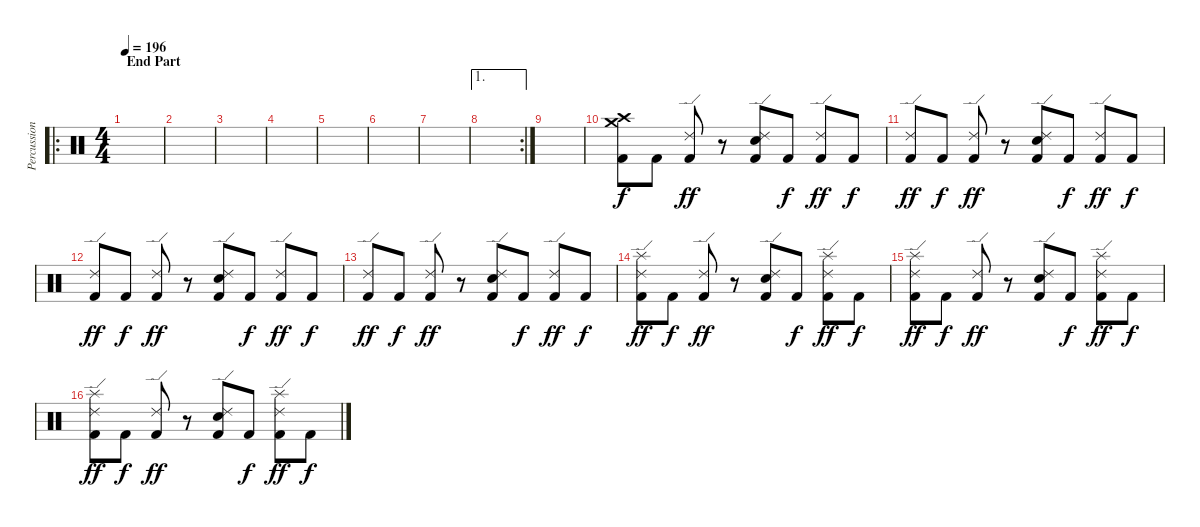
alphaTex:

\track ("Percussions" "Percussion") {instrument percussion}
\staff {score}
\articulation defaults
\ro
\ts (4 4)
\section ("" "End Part")
\tempo 196
\clef neutral
\ks c
|
|
|
|
|
|
|
\ae 1
\rc 2
|
|
("Crash high (hit)" "Crash medium (hit)" "Kick (hit) 2").8 "Kick (hit) 2".8{dy f} ("Ride (edge) 2" "Kick (hit) 2").8{dy ff} r.8 ("Ride (edge) 2" "Electric Snare (hit)" "Kick (hit) 2").8 "Kick (hit) 2".8{dy f} ("Ride (edge) 2" "Kick (hit) 2").8{dy ff} "Kick (hit) 2".8{dy f} |
("Ride (edge) 2" "Kick (hit) 2").8{dy ff} "Kick (hit) 2".8{dy f} ("Ride (edge) 2" "Kick (hit) 2").8{dy ff} r.8 ("Ride (edge) 2" "Electric Snare (hit)" "Kick (hit) 2").8 "Kick (hit) 2".8{dy f} ("Ride (edge) 2" "Kick (hit) 2").8{dy ff} "Kick (hit) 2".8{dy f} |
("Ride (edge) 2" "Kick (hit) 2").8{dy ff} "Kick (hit) 2".8{dy f} ("Ride (edge) 2" "Kick (hit) 2").8{dy ff} r.8 ("Ride (edge) 2" "Electric Snare (hit)" "Kick (hit) 2").8 "Kick (hit) 2".8{dy f} ("Ride (edge) 2" "Kick (hit) 2").8{dy ff} "Kick (hit) 2".8{dy f} |
("Ride (edge) 2" "Kick (hit) 2").8{dy ff} "Kick (hit) 2".8{dy f} ("Ride (edge) 2" "Kick (hit) 2").8{dy ff} r.8 ("Ride (edge) 2" "Electric Snare (hit)" "Kick (hit) 2").8 "Kick (hit) 2".8{dy f} ("Ride (edge) 2" "Kick (hit) 2").8{dy ff} "Kick (hit) 2".8{dy f} |
("Splash (hit)" "Ride (edge) 2" "Kick (hit) 2").8{dy ff} "Kick (hit) 2".8{dy f} ("Ride (edge) 2" "Kick (hit) 2").8{dy ff} r.8 ("Ride (edge) 2" "Electric Snare (hit)" "Kick (hit) 2").8 "Kick (hit) 2".8{dy f} ("Splash (hit)" "Ride (edge) 2" "Kick (hit) 2").8{dy ff} "Kick (hit) 2".8{dy f} |
("Splash (hit)" "Ride (edge) 2" "Kick (hit) 2").8{dy ff} "Kick (hit) 2".8{dy f} ("Ride (edge) 2" "Kick (hit) 2").8{dy ff} r.8 ("Ride (edge) 2" "Electric Snare (hit)" "Kick (hit) 2").8 "Kick (hit) 2".8{dy f} ("Splash (hit)" "Ride (edge) 2" "Kick (hit) 2").8{dy ff} "Kick (hit) 2".8{dy f} |
("Splash (hit)" "Ride (edge) 2" "Kick (hit) 2").8{dy ff} "Kick (hit) 2".8{dy f} ("Ride (edge) 2" "Kick (hit) 2").8{dy ff} r.8 ("Ride (edge) 2" "Electric Snare (hit)" "Kick (hit) 2").8 "Kick (hit) 2".8{dy f} ("Splash (hit)" "Ride (edge) 2" "Kick (hit) 2").8{dy ff} "Kick (hit) 2".8{dy f}
